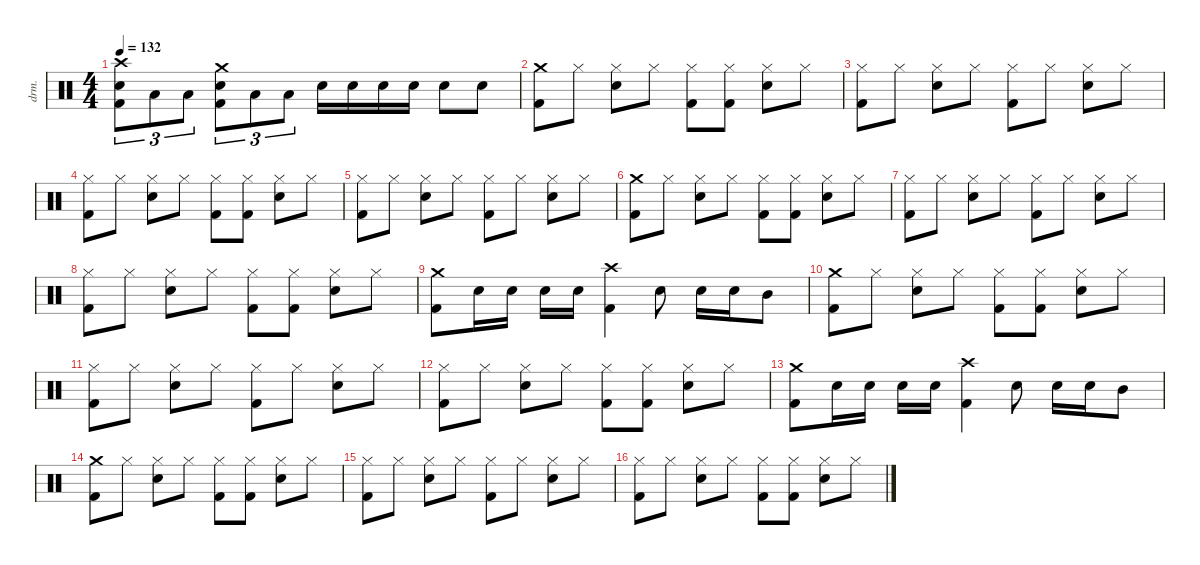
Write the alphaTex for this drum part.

\defaultSystemsLayout 4
\hideDynamics
\bracketExtendMode nobrackets
\track ("敲击乐器" "drm.") {instrument percussion}
\staff {score}
\articulation defaults
\ts (4 4)
\tempo 132
\clef neutral
\ks c
("Crash high (hit)" "Snare (hit) 2" "Kick (hit) 2").8{tu (3 2) dy f} "Low Tom (hit)".8{tu (3 2)} "Low Tom (hit)".8{tu (3 2)} ("Crash medium (hit)" "Snare (hit) 2" "Kick (hit) 2").8{tu (3 2)} "Low Floor Tom (hit)".8{tu (3 2)} "Low Floor Tom (hit)".8{tu (3 2)} "Snare (hit) 2".16 "Snare (hit) 2".16 "Snare (hit) 2".16 "Snare (hit) 2".16 "Snare (hit) 2".8 "Snare (hit) 2".8 |
("Crash medium (hit)" "Kick (hit) 2").8 "Hi-Hat (closed)".8 ("Hi-Hat (closed)" "Snare (hit) 2").8 "Hi-Hat (closed)".8 ("Hi-Hat (closed)" "Kick (hit) 2").8 ("Hi-Hat (closed)" "Kick (hit) 2").8 ("Hi-Hat (closed)" "Snare (hit) 2").8 "Hi-Hat (closed)".8 |
("Hi-Hat (closed)" "Kick (hit) 2").8 "Hi-Hat (closed)".8 ("Hi-Hat (closed)" "Snare (hit) 2").8 "Hi-Hat (closed)".8 ("Hi-Hat (closed)" "Kick (hit) 2").8 "Hi-Hat (closed)".8 ("Hi-Hat (closed)" "Snare (hit) 2").8 "Hi-Hat (closed)".8 |
("Hi-Hat (closed)" "Kick (hit) 2").8 "Hi-Hat (closed)".8 ("Hi-Hat (closed)" "Snare (hit) 2").8 "Hi-Hat (closed)".8 ("Hi-Hat (closed)" "Kick (hit) 2").8 ("Hi-Hat (closed)" "Kick (hit) 2").8 ("Hi-Hat (closed)" "Snare (hit) 2").8 "Hi-Hat (closed)".8 |
("Hi-Hat (closed)" "Kick (hit) 2").8 "Hi-Hat (closed)".8 ("Hi-Hat (closed)" "Snare (hit) 2").8 "Hi-Hat (closed)".8 ("Hi-Hat (closed)" "Kick (hit) 2").8 "Hi-Hat (closed)".8 ("Hi-Hat (closed)" "Snare (hit) 2").8 "Hi-Hat (closed)".8 |
("Crash medium (hit)" "Kick (hit) 2").8 "Hi-Hat (closed)".8 ("Hi-Hat (closed)" "Snare (hit) 2").8 "Hi-Hat (closed)".8 ("Hi-Hat (closed)" "Kick (hit) 2").8 ("Hi-Hat (closed)" "Kick (hit) 2").8 ("Hi-Hat (closed)" "Snare (hit) 2").8 "Hi-Hat (closed)".8 |
("Hi-Hat (closed)" "Kick (hit) 2").8 "Hi-Hat (closed)".8 ("Hi-Hat (closed)" "Snare (hit) 2").8 "Hi-Hat (closed)".8 ("Hi-Hat (closed)" "Kick (hit) 2").8 "Hi-Hat (closed)".8 ("Hi-Hat (closed)" "Snare (hit) 2").8 "Hi-Hat (closed)".8 |
("Hi-Hat (closed)" "Kick (hit) 2").8 "Hi-Hat (closed)".8 ("Hi-Hat (closed)" "Snare (hit) 2").8 "Hi-Hat (closed)".8 ("Hi-Hat (closed)" "Kick (hit) 2").8 ("Hi-Hat (closed)" "Kick (hit) 2").8 ("Hi-Hat (closed)" "Snare (hit) 2").8 "Hi-Hat (closed)".8 |
("Crash medium (hit)" "Kick (hit) 2").8 "Snare (hit) 2".16 "Snare (hit) 2".16 "Snare (hit) 2".16 "Snare (hit) 2".16 ("Crash high (hit)" "Kick (hit) 2").4 "Snare (hit) 2".8 "Snare (hit) 2".16 "Snare (hit) 2".16 "Mid Tom (hit)".8 |
("Crash medium (hit)" "Kick (hit) 2").8 "Hi-Hat (closed)".8 ("Hi-Hat (closed)" "Snare (hit) 2").8 "Hi-Hat (closed)".8 ("Hi-Hat (closed)" "Kick (hit) 2").8 ("Hi-Hat (closed)" "Kick (hit) 2").8 ("Hi-Hat (closed)" "Snare (hit) 2").8 "Hi-Hat (closed)".8 |
("Hi-Hat (closed)" "Kick (hit) 2").8 "Hi-Hat (closed)".8 ("Hi-Hat (closed)" "Snare (hit) 2").8 "Hi-Hat (closed)".8 ("Hi-Hat (closed)" "Kick (hit) 2").8 "Hi-Hat (closed)".8 ("Hi-Hat (closed)" "Snare (hit) 2").8 "Hi-Hat (closed)".8 |
("Hi-Hat (closed)" "Kick (hit) 2").8 "Hi-Hat (closed)".8 ("Hi-Hat (closed)" "Snare (hit) 2").8 "Hi-Hat (closed)".8 ("Hi-Hat (closed)" "Kick (hit) 2").8 ("Hi-Hat (closed)" "Kick (hit) 2").8 ("Hi-Hat (closed)" "Snare (hit) 2").8 "Hi-Hat (closed)".8 |
("Crash medium (hit)" "Kick (hit) 2").8 "Snare (hit) 2".16 "Snare (hit) 2".16 "Snare (hit) 2".16 "Snare (hit) 2".16 ("Crash high (hit)" "Kick (hit) 2").4 "Snare (hit) 2".8 "Snare (hit) 2".16 "Snare (hit) 2".16 "Mid Tom (hit)".8 |
("Crash medium (hit)" "Kick (hit) 2").8 "Hi-Hat (closed)".8 ("Hi-Hat (closed)" "Snare (hit) 2").8 "Hi-Hat (closed)".8 ("Hi-Hat (closed)" "Kick (hit) 2").8 ("Hi-Hat (closed)" "Kick (hit) 2").8 ("Hi-Hat (closed)" "Snare (hit) 2").8 "Hi-Hat (closed)".8 |
("Hi-Hat (closed)" "Kick (hit) 2").8 "Hi-Hat (closed)".8 ("Hi-Hat (closed)" "Snare (hit) 2").8 "Hi-Hat (closed)".8 ("Hi-Hat (closed)" "Kick (hit) 2").8 "Hi-Hat (closed)".8 ("Hi-Hat (closed)" "Snare (hit) 2").8 "Hi-Hat (closed)".8 |
("Hi-Hat (closed)" "Kick (hit) 2").8 "Hi-Hat (closed)".8 ("Hi-Hat (closed)" "Snare (hit) 2").8 "Hi-Hat (closed)".8 ("Hi-Hat (closed)" "Kick (hit) 2").8 ("Hi-Hat (closed)" "Kick (hit) 2").8 ("Hi-Hat (closed)" "Snare (hit) 2").8 "Hi-Hat (closed)".8
